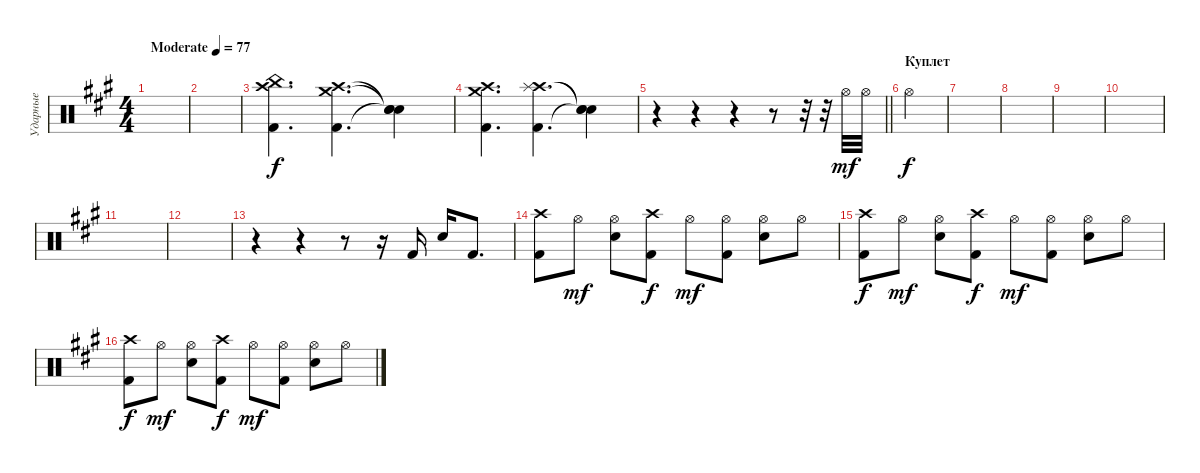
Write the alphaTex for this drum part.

\track ("Ударные" "Ударные") {instrument percussion}
\staff {score}
\articulation defaults
\ts (4 4)
\tempo (77 "Moderate")
\clef neutral
\ks f#minor
|
|
("Kick (hit) 2" "Crash high (hit)" "China (hit)").4{d} ("Kick (hit) 2" "Crash medium (hit)" "Crash high (hit)").4{d} ("Snare (hit)"{t} "Snare (hit)"{t} "Snare (hit)"{t}).4 |
("Kick (hit) 2" "Crash medium (hit)" "Crash high (hit)").4{d} ("Kick (hit) 2" "Crash high (hit)" "Splash (hit)").4{d} ("Snare (hit)"{t} "Snare (hit)"{t} "Snare (hit)"{t}).4 |
\barLineRight lightlight
r.4 r.4 r.4 r.8 r.32 r.32 "Hi-Hat (open)".32{dy mf} "Hi-Hat (open)".32 |
\section ("" "Куплет")
"Hi-Hat (open)".4{dy f} |
|
|
|
|
|
|
r.4 r.4 r.8 r.16 "Kick (hit) 2".16 "Electric Snare (hit)".16 "Kick (hit) 2".8{d} |
("Crash high (hit)" "Kick (hit) 2").8 "Hi-Hat (open)".8{dy mf} ("Hi-Hat (open)" "Electric Snare (hit)").8 ("Crash high (hit)" "Kick (hit) 2").8{dy f} "Hi-Hat (open)".8{dy mf} ("Hi-Hat (open)" "Kick (hit) 2").8 ("Hi-Hat (open)" "Electric Snare (hit)").8 "Hi-Hat (open)".8 |
("Crash high (hit)" "Kick (hit) 2").8{dy f} "Hi-Hat (open)".8{dy mf} ("Hi-Hat (open)" "Electric Snare (hit)").8 ("Crash high (hit)" "Kick (hit) 2").8{dy f} "Hi-Hat (open)".8{dy mf} ("Hi-Hat (open)" "Kick (hit) 2").8 ("Hi-Hat (open)" "Electric Snare (hit)").8 "Hi-Hat (open)".8 |
("Crash high (hit)" "Kick (hit) 2").8{dy f} "Hi-Hat (open)".8{dy mf} ("Hi-Hat (open)" "Electric Snare (hit)").8 ("Crash high (hit)" "Kick (hit) 2").8{dy f} "Hi-Hat (open)".8{dy mf} ("Hi-Hat (open)" "Kick (hit) 2").8 ("Hi-Hat (open)" "Electric Snare (hit)").8 "Hi-Hat (open)".8
